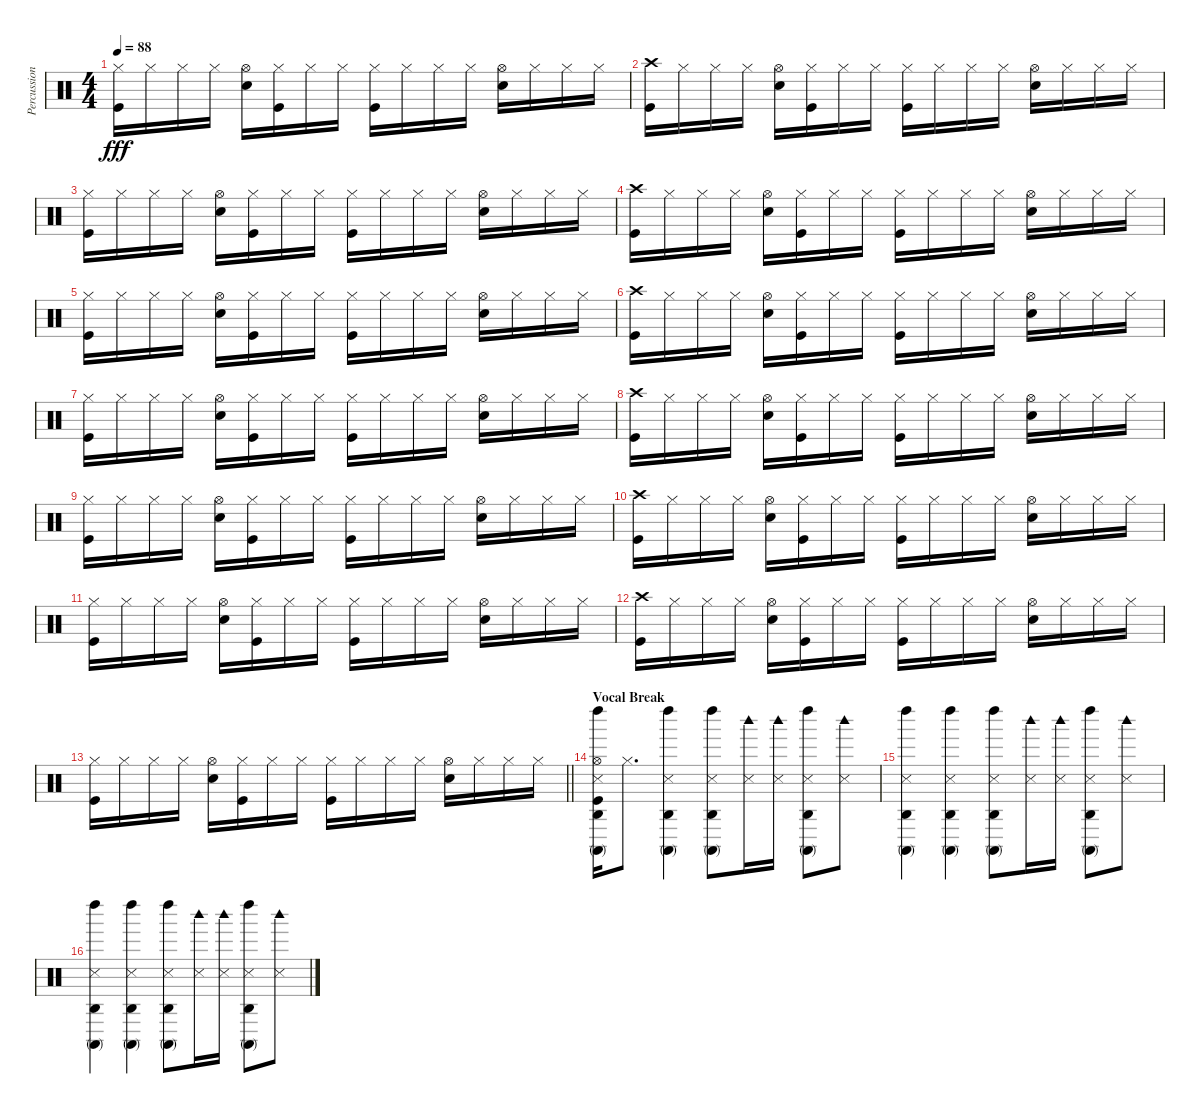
\track ("Percussion" "Percussion") {instrument percussion}
\staff {score}
\articulation defaults
\ts (4 4)
\tempo 88
\clef neutral
\ks c
("Hi-Hat (closed)" "Kick (hit)").16{dy fff} "Hi-Hat (closed)".16 "Hi-Hat (closed)".16 "Hi-Hat (closed)".16 ("Hi-Hat (open)" "Snare (hit) 2").16 ("Hi-Hat (closed)" "Kick (hit)").16 "Hi-Hat (closed)".16 "Hi-Hat (closed)".16 ("Hi-Hat (closed)" "Kick (hit)").16 "Hi-Hat (closed)".16 "Hi-Hat (closed)".16 "Hi-Hat (closed)".16 ("Hi-Hat (open)" "Snare (hit) 2").16 "Hi-Hat (closed)".16 "Hi-Hat (closed)".16 "Hi-Hat (closed)".16 |
("Crash high (hit)" "Kick (hit)").16 "Hi-Hat (closed)".16 "Hi-Hat (closed)".16 "Hi-Hat (closed)".16 ("Hi-Hat (open)" "Snare (hit) 2").16 ("Hi-Hat (closed)" "Kick (hit)").16 "Hi-Hat (closed)".16 "Hi-Hat (closed)".16 ("Hi-Hat (closed)" "Kick (hit)").16 "Hi-Hat (closed)".16 "Hi-Hat (closed)".16 "Hi-Hat (closed)".16 ("Hi-Hat (open)" "Snare (hit) 2").16 "Hi-Hat (closed)".16 "Hi-Hat (closed)".16 "Hi-Hat (closed)".16 |
("Hi-Hat (closed)" "Kick (hit)").16 "Hi-Hat (closed)".16 "Hi-Hat (closed)".16 "Hi-Hat (closed)".16 ("Hi-Hat (open)" "Snare (hit) 2").16 ("Hi-Hat (closed)" "Kick (hit)").16 "Hi-Hat (closed)".16 "Hi-Hat (closed)".16 ("Hi-Hat (closed)" "Kick (hit)").16 "Hi-Hat (closed)".16 "Hi-Hat (closed)".16 "Hi-Hat (closed)".16 ("Hi-Hat (open)" "Snare (hit) 2").16 "Hi-Hat (closed)".16 "Hi-Hat (closed)".16 "Hi-Hat (closed)".16 |
("Crash high (hit)" "Kick (hit)").16 "Hi-Hat (closed)".16 "Hi-Hat (closed)".16 "Hi-Hat (closed)".16 ("Hi-Hat (open)" "Snare (hit) 2").16 ("Hi-Hat (closed)" "Kick (hit)").16 "Hi-Hat (closed)".16 "Hi-Hat (closed)".16 ("Hi-Hat (closed)" "Kick (hit)").16 "Hi-Hat (closed)".16 "Hi-Hat (closed)".16 "Hi-Hat (closed)".16 ("Hi-Hat (open)" "Snare (hit) 2").16 "Hi-Hat (closed)".16 "Hi-Hat (closed)".16 "Hi-Hat (closed)".16 |
("Hi-Hat (closed)" "Kick (hit)").16 "Hi-Hat (closed)".16 "Hi-Hat (closed)".16 "Hi-Hat (closed)".16 ("Hi-Hat (open)" "Snare (hit) 2").16 ("Hi-Hat (closed)" "Kick (hit)").16 "Hi-Hat (closed)".16 "Hi-Hat (closed)".16 ("Hi-Hat (closed)" "Kick (hit)").16 "Hi-Hat (closed)".16 "Hi-Hat (closed)".16 "Hi-Hat (closed)".16 ("Hi-Hat (open)" "Snare (hit) 2").16 "Hi-Hat (closed)".16 "Hi-Hat (closed)".16 "Hi-Hat (closed)".16 |
("Crash high (hit)" "Kick (hit)").16 "Hi-Hat (closed)".16 "Hi-Hat (closed)".16 "Hi-Hat (closed)".16 ("Hi-Hat (open)" "Snare (hit) 2").16 ("Hi-Hat (closed)" "Kick (hit)").16 "Hi-Hat (closed)".16 "Hi-Hat (closed)".16 ("Hi-Hat (closed)" "Kick (hit)").16 "Hi-Hat (closed)".16 "Hi-Hat (closed)".16 "Hi-Hat (closed)".16 ("Hi-Hat (open)" "Snare (hit) 2").16 "Hi-Hat (closed)".16 "Hi-Hat (closed)".16 "Hi-Hat (closed)".16 |
("Hi-Hat (closed)" "Kick (hit)").16 "Hi-Hat (closed)".16 "Hi-Hat (closed)".16 "Hi-Hat (closed)".16 ("Hi-Hat (open)" "Snare (hit) 2").16 ("Hi-Hat (closed)" "Kick (hit)").16 "Hi-Hat (closed)".16 "Hi-Hat (closed)".16 ("Hi-Hat (closed)" "Kick (hit)").16 "Hi-Hat (closed)".16 "Hi-Hat (closed)".16 "Hi-Hat (closed)".16 ("Hi-Hat (open)" "Snare (hit) 2").16 "Hi-Hat (closed)".16 "Hi-Hat (closed)".16 "Hi-Hat (closed)".16 |
("Crash high (hit)" "Kick (hit)").16 "Hi-Hat (closed)".16 "Hi-Hat (closed)".16 "Hi-Hat (closed)".16 ("Hi-Hat (open)" "Snare (hit) 2").16 ("Hi-Hat (closed)" "Kick (hit)").16 "Hi-Hat (closed)".16 "Hi-Hat (closed)".16 ("Hi-Hat (closed)" "Kick (hit)").16 "Hi-Hat (closed)".16 "Hi-Hat (closed)".16 "Hi-Hat (closed)".16 ("Hi-Hat (open)" "Snare (hit) 2").16 "Hi-Hat (closed)".16 "Hi-Hat (closed)".16 "Hi-Hat (closed)".16 |
("Hi-Hat (closed)" "Kick (hit)").16 "Hi-Hat (closed)".16 "Hi-Hat (closed)".16 "Hi-Hat (closed)".16 ("Hi-Hat (open)" "Snare (hit) 2").16 ("Hi-Hat (closed)" "Kick (hit)").16 "Hi-Hat (closed)".16 "Hi-Hat (closed)".16 ("Hi-Hat (closed)" "Kick (hit)").16 "Hi-Hat (closed)".16 "Hi-Hat (closed)".16 "Hi-Hat (closed)".16 ("Hi-Hat (open)" "Snare (hit) 2").16 "Hi-Hat (closed)".16 "Hi-Hat (closed)".16 "Hi-Hat (closed)".16 |
("Crash high (hit)" "Kick (hit)").16 "Hi-Hat (closed)".16 "Hi-Hat (closed)".16 "Hi-Hat (closed)".16 ("Hi-Hat (open)" "Snare (hit) 2").16 ("Hi-Hat (closed)" "Kick (hit)").16 "Hi-Hat (closed)".16 "Hi-Hat (closed)".16 ("Hi-Hat (closed)" "Kick (hit)").16 "Hi-Hat (closed)".16 "Hi-Hat (closed)".16 "Hi-Hat (closed)".16 ("Hi-Hat (open)" "Snare (hit) 2").16 "Hi-Hat (closed)".16 "Hi-Hat (closed)".16 "Hi-Hat (closed)".16 |
("Hi-Hat (closed)" "Kick (hit)").16 "Hi-Hat (closed)".16 "Hi-Hat (closed)".16 "Hi-Hat (closed)".16 ("Hi-Hat (open)" "Snare (hit) 2").16 ("Hi-Hat (closed)" "Kick (hit)").16 "Hi-Hat (closed)".16 "Hi-Hat (closed)".16 ("Hi-Hat (closed)" "Kick (hit)").16 "Hi-Hat (closed)".16 "Hi-Hat (closed)".16 "Hi-Hat (closed)".16 ("Hi-Hat (open)" "Snare (hit) 2").16 "Hi-Hat (closed)".16 "Hi-Hat (closed)".16 "Hi-Hat (closed)".16 |
("Crash high (hit)" "Kick (hit)").16 "Hi-Hat (closed)".16 "Hi-Hat (closed)".16 "Hi-Hat (closed)".16 ("Hi-Hat (open)" "Snare (hit) 2").16 ("Hi-Hat (closed)" "Kick (hit)").16 "Hi-Hat (closed)".16 "Hi-Hat (closed)".16 ("Hi-Hat (closed)" "Kick (hit)").16 "Hi-Hat (closed)".16 "Hi-Hat (closed)".16 "Hi-Hat (closed)".16 ("Hi-Hat (open)" "Snare (hit) 2").16 "Hi-Hat (closed)".16 "Hi-Hat (closed)".16 "Hi-Hat (closed)".16 |
\barLineRight lightlight
("Hi-Hat (closed)" "Kick (hit)").16 "Hi-Hat (closed)".16 "Hi-Hat (closed)".16 "Hi-Hat (closed)".16 ("Hi-Hat (open)" "Snare (hit) 2").16 ("Hi-Hat (closed)" "Kick (hit)").16 "Hi-Hat (closed)".16 "Hi-Hat (closed)".16 ("Hi-Hat (closed)" "Kick (hit)").16 "Hi-Hat (closed)".16 "Hi-Hat (closed)".16 "Hi-Hat (closed)".16 ("Hi-Hat (open)" "Snare (hit) 2").16 "Hi-Hat (closed)".16 "Hi-Hat (closed)".16 "Hi-Hat (closed)".16 |
\section ("" "Vocal Break")
("Hi-Hat (open)" "Left Maraca (hit)" "Agogo high (hit)" "Conga high (mute)" "Snare (side stick) 3" "Kick (hit)").16 "Hi-Hat (closed)".8{d} ("Left Maraca (hit)" "Agogo high (hit)" "Conga high (mute)" "Snare (side stick) 3").4 ("Left Maraca (hit)" "Agogo high (hit)" "Conga high (mute)" "Snare (side stick) 3").8 ("Woodblock high (hit)" "Snare (side stick) 3").16 ("Woodblock high (hit)" "Snare (side stick) 3").16 ("Left Maraca (hit)" "Agogo high (hit)" "Conga high (mute)" "Snare (side stick) 3").8 ("Woodblock high (hit)" "Snare (side stick) 3").8 |
("Left Maraca (hit)" "Agogo high (hit)" "Conga high (mute)" "Snare (side stick) 3").4 ("Left Maraca (hit)" "Agogo high (hit)" "Conga high (mute)" "Snare (side stick) 3").4 ("Left Maraca (hit)" "Agogo high (hit)" "Conga high (mute)" "Snare (side stick) 3").8 ("Woodblock high (hit)" "Snare (side stick) 3").16 ("Woodblock high (hit)" "Snare (side stick) 3").16 ("Left Maraca (hit)" "Agogo high (hit)" "Conga high (mute)" "Snare (side stick) 3").8 ("Woodblock high (hit)" "Snare (side stick) 3").8 |
("Left Maraca (hit)" "Agogo high (hit)" "Conga high (mute)" "Snare (side stick) 3").4 ("Left Maraca (hit)" "Agogo high (hit)" "Conga high (mute)" "Snare (side stick) 3").4 ("Left Maraca (hit)" "Agogo high (hit)" "Conga high (mute)" "Snare (side stick) 3").8 ("Woodblock high (hit)" "Snare (side stick) 3").16 ("Woodblock high (hit)" "Snare (side stick) 3").16 ("Left Maraca (hit)" "Agogo high (hit)" "Conga high (mute)" "Snare (side stick) 3").8 ("Woodblock high (hit)" "Snare (side stick) 3").8
